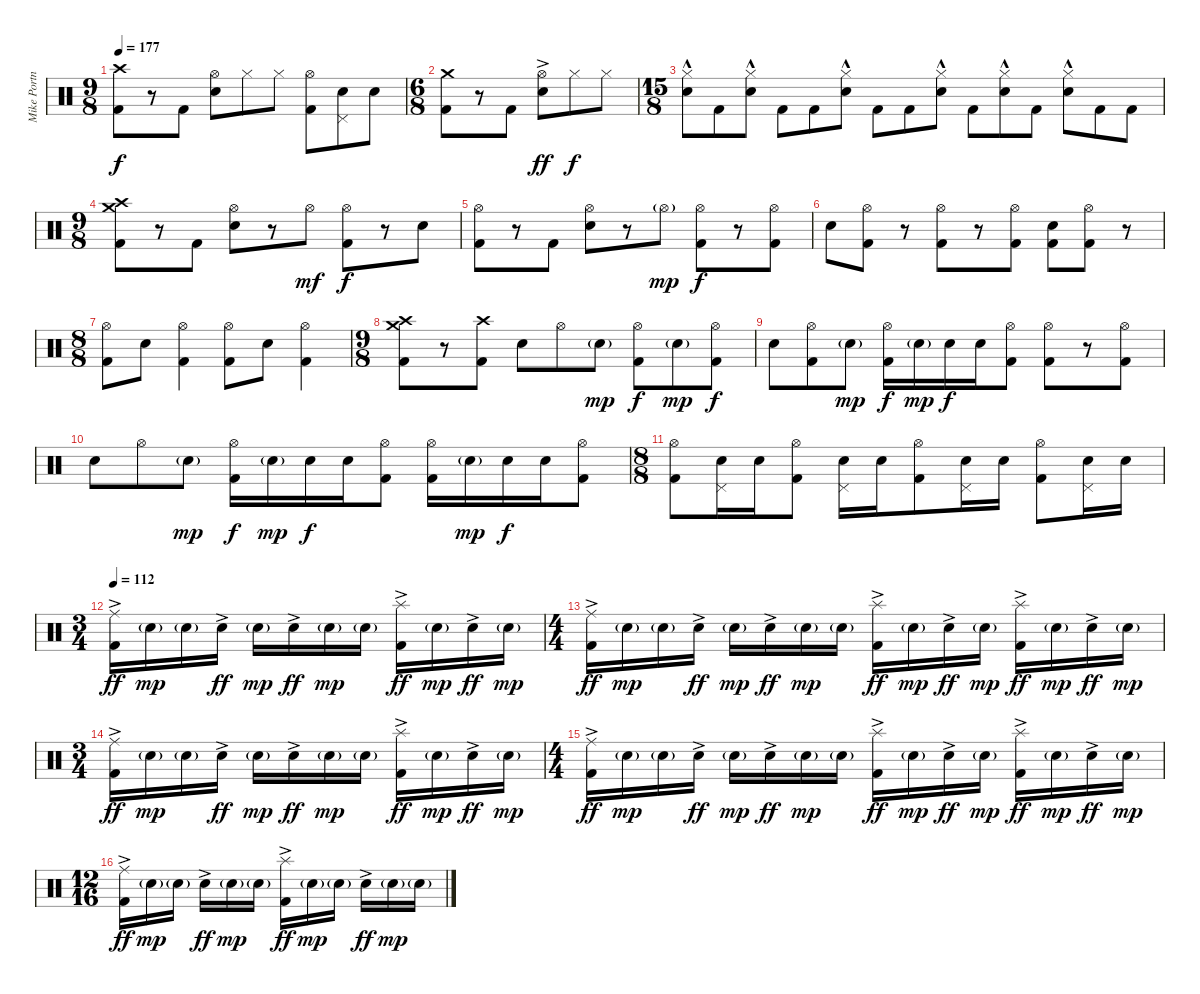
\track ("Mike Portnoy" "Mike Portn") {instrument percussion}
\staff {score}
\articulation defaults
\ts (9 8)
\tempo 177
\clef neutral
\ks c
("Crash high (hit)" "Kick (hit) 2").8{dy f} r.8 "Kick (hit) 2".8 ("Hi-Hat (open)" "Electric Snare (hit)").8 "Hi-Hat (closed)".8 "Hi-Hat (closed)".8 ("Hi-Hat (open)" "Kick (hit) 2").8 ("Pedal Hi-Hat (hit)" "Electric Snare (hit)").8 "Electric Snare (hit)".8 |
\ts (6 8)
("Crash medium (hit)" "Kick (hit) 2").8 r.8 "Kick (hit) 2".8 ("Hi-Hat (open)"{ac} "Electric Snare (hit)"{ac}).8{dy ff} "Hi-Hat (closed)".8{dy f} "Hi-Hat (closed)".8 |
\ts (15 8)
("Hi-Hat (closed)"{hac} "Electric Snare (hit)").8 "Kick (hit) 2".8 ("Hi-Hat (closed)"{hac} "Electric Snare (hit)").8 "Kick (hit) 2".8 "Kick (hit) 2".8 ("Hi-Hat (closed)"{hac} "Electric Snare (hit)").8 "Kick (hit) 2".8 "Kick (hit) 2".8 ("Hi-Hat (closed)"{hac} "Electric Snare (hit)").8 "Kick (hit) 2".8 ("Hi-Hat (closed)"{hac} "Electric Snare (hit)").8 "Kick (hit) 2".8 ("Hi-Hat (closed)"{hac} "Electric Snare (hit)").8 "Kick (hit) 2".8 "Kick (hit) 2".8 |
\ts (9 8)
("Crash medium (hit)" "Crash high (hit)" "Kick (hit) 2").8 r.8 "Kick (hit) 2".8 ("Hi-Hat (open)" "Electric Snare (hit)").8 r.8 "Hi-Hat (open)".8{dy mf} ("Hi-Hat (open)" "Kick (hit) 2").8{dy f} r.8 "Electric Snare (hit)".8 |
("Hi-Hat (open)" "Kick (hit) 2").8 r.8 "Kick (hit) 2".8 ("Hi-Hat (open)" "Electric Snare (hit)").8 r.8 "Hi-Hat (open)"{g}.8{dy mp} ("Hi-Hat (open)" "Kick (hit) 2").8{dy f} r.8 ("Hi-Hat (open)" "Kick (hit) 2").8 |
"Electric Snare (hit)".8 ("Hi-Hat (open)" "Kick (hit) 2").8 r.8 ("Hi-Hat (open)" "Kick (hit) 2").8 r.8 ("Hi-Hat (open)" "Kick (hit) 2").8 ("Electric Snare (hit)" "Kick (hit) 2").8 ("Hi-Hat (open)" "Kick (hit) 2").8 r.8 |
\ts (8 8)
("Hi-Hat (open)" "Kick (hit) 2").8 "Electric Snare (hit)".8 ("Hi-Hat (open)" "Kick (hit) 2").4 ("Hi-Hat (open)" "Kick (hit) 2").8 "Electric Snare (hit)".8 ("Hi-Hat (open)" "Kick (hit) 2").4 |
\ts (9 8)
("Crash medium (hit)" "Crash high (hit)" "Kick (hit) 2").8 r.8 ("Crash high (hit)" "Kick (hit) 2").8 "Electric Snare (hit)".8 "Hi-Hat (open)".8 "Electric Snare (hit)"{g}.8{dy mp} ("Hi-Hat (open)" "Kick (hit) 2").8{dy f} "Electric Snare (hit)"{g}.8{dy mp} ("Hi-Hat (open)" "Kick (hit) 2").8{dy f} |
"Electric Snare (hit)".8 ("Hi-Hat (open)" "Kick (hit) 2").8 "Electric Snare (hit)"{g}.8{dy mp} ("Hi-Hat (open)" "Kick (hit) 2").16{dy f} "Electric Snare (hit)"{g}.16{dy mp} "Electric Snare (hit)".16{dy f} "Electric Snare (hit)".16 ("Hi-Hat (open)" "Kick (hit) 2").8 ("Hi-Hat (open)" "Kick (hit) 2").8 r.8 ("Hi-Hat (open)" "Kick (hit) 2").8 |
"Electric Snare (hit)".8 "Hi-Hat (open)".8 "Electric Snare (hit)"{g}.8{dy mp} ("Hi-Hat (open)" "Kick (hit) 2").16{dy f} "Electric Snare (hit)"{g}.16{dy mp} "Electric Snare (hit)".16{dy f} "Electric Snare (hit)".16 ("Hi-Hat (open)" "Kick (hit) 2").8 ("Hi-Hat (open)" "Kick (hit) 2").16 "Electric Snare (hit)"{g}.16{dy mp} "Electric Snare (hit)".16{dy f} "Electric Snare (hit)".16 ("Hi-Hat (open)" "Kick (hit) 2").8 |
\ts (8 8)
("Hi-Hat (open)" "Kick (hit) 2").8 ("Pedal Hi-Hat (hit)" "Electric Snare (hit)").16 "Electric Snare (hit)".16 ("Hi-Hat (open)" "Kick (hit) 2").8 ("Pedal Hi-Hat (hit)" "Electric Snare (hit)").16 "Electric Snare (hit)".16 ("Hi-Hat (open)" "Kick (hit) 2").8 ("Pedal Hi-Hat (hit)" "Electric Snare (hit)").16 "Electric Snare (hit)".16 ("Hi-Hat (open)" "Kick (hit) 2").8 ("Pedal Hi-Hat (hit)" "Electric Snare (hit)").16 "Electric Snare (hit)".16 |
\ts (3 4)
\tempo 112
("Ride (middle)" "Kick (hit) 2"{ac}).16{dy ff} "Electric Snare (hit)"{g}.16{dy mp} "Electric Snare (hit)"{g}.16 "Electric Snare (hit)"{ac}.16{dy ff} "Electric Snare (hit)"{g}.16{dy mp} "Electric Snare (hit)"{ac}.16{dy ff} "Electric Snare (hit)"{g}.16{dy mp} "Electric Snare (hit)"{g}.16 ("Splash (hit)" "Kick (hit) 2"{ac}).16{dy ff} "Electric Snare (hit)"{g}.16{dy mp} "Electric Snare (hit)"{ac}.16{dy ff} "Electric Snare (hit)"{g}.16{dy mp} |
\ts (4 4)
("Ride (middle)" "Kick (hit) 2"{ac}).16{dy ff} "Electric Snare (hit)"{g}.16{dy mp} "Electric Snare (hit)"{g}.16 "Electric Snare (hit)"{ac}.16{dy ff} "Electric Snare (hit)"{g}.16{dy mp} "Electric Snare (hit)"{ac}.16{dy ff} "Electric Snare (hit)"{g}.16{dy mp} "Electric Snare (hit)"{g}.16 ("Splash (hit)" "Kick (hit) 2"{ac}).16{dy ff} "Electric Snare (hit)"{g}.16{dy mp} "Electric Snare (hit)"{ac}.16{dy ff} "Electric Snare (hit)"{g}.16{dy mp} ("Splash (hit)" "Kick (hit) 2"{ac}).16{dy ff} "Electric Snare (hit)"{g}.16{dy mp} "Electric Snare (hit)"{ac}.16{dy ff} "Electric Snare (hit)"{g}.16{dy mp} |
\ts (3 4)
("Ride (middle)" "Kick (hit) 2"{ac}).16{dy ff} "Electric Snare (hit)"{g}.16{dy mp} "Electric Snare (hit)"{g}.16 "Electric Snare (hit)"{ac}.16{dy ff} "Electric Snare (hit)"{g}.16{dy mp} "Electric Snare (hit)"{ac}.16{dy ff} "Electric Snare (hit)"{g}.16{dy mp} "Electric Snare (hit)"{g}.16 ("Splash (hit)" "Kick (hit) 2"{ac}).16{dy ff} "Electric Snare (hit)"{g}.16{dy mp} "Electric Snare (hit)"{ac}.16{dy ff} "Electric Snare (hit)"{g}.16{dy mp} |
\ts (4 4)
("Ride (middle)" "Kick (hit) 2"{ac}).16{dy ff} "Electric Snare (hit)"{g}.16{dy mp} "Electric Snare (hit)"{g}.16 "Electric Snare (hit)"{ac}.16{dy ff} "Electric Snare (hit)"{g}.16{dy mp} "Electric Snare (hit)"{ac}.16{dy ff} "Electric Snare (hit)"{g}.16{dy mp} "Electric Snare (hit)"{g}.16 ("Splash (hit)" "Kick (hit) 2"{ac}).16{dy ff} "Electric Snare (hit)"{g}.16{dy mp} "Electric Snare (hit)"{ac}.16{dy ff} "Electric Snare (hit)"{g}.16{dy mp} ("Splash (hit)" "Kick (hit) 2"{ac}).16{dy ff} "Electric Snare (hit)"{g}.16{dy mp} "Electric Snare (hit)"{ac}.16{dy ff} "Electric Snare (hit)"{g}.16{dy mp} |
\ts (12 16)
("Ride (middle)" "Kick (hit) 2"{ac}).16{dy ff} "Electric Snare (hit)"{g}.16{dy mp} "Electric Snare (hit)"{g}.16 "Electric Snare (hit)"{ac}.16{dy ff} "Electric Snare (hit)"{g}.16{dy mp} "Electric Snare (hit)"{g}.16 ("Splash (hit)" "Kick (hit) 2"{ac}).16{dy ff} "Electric Snare (hit)"{g}.16{dy mp} "Electric Snare (hit)"{g}.16 "Electric Snare (hit)"{ac}.16{dy ff} "Electric Snare (hit)"{g}.16{dy mp} "Electric Snare (hit)"{g}.16
